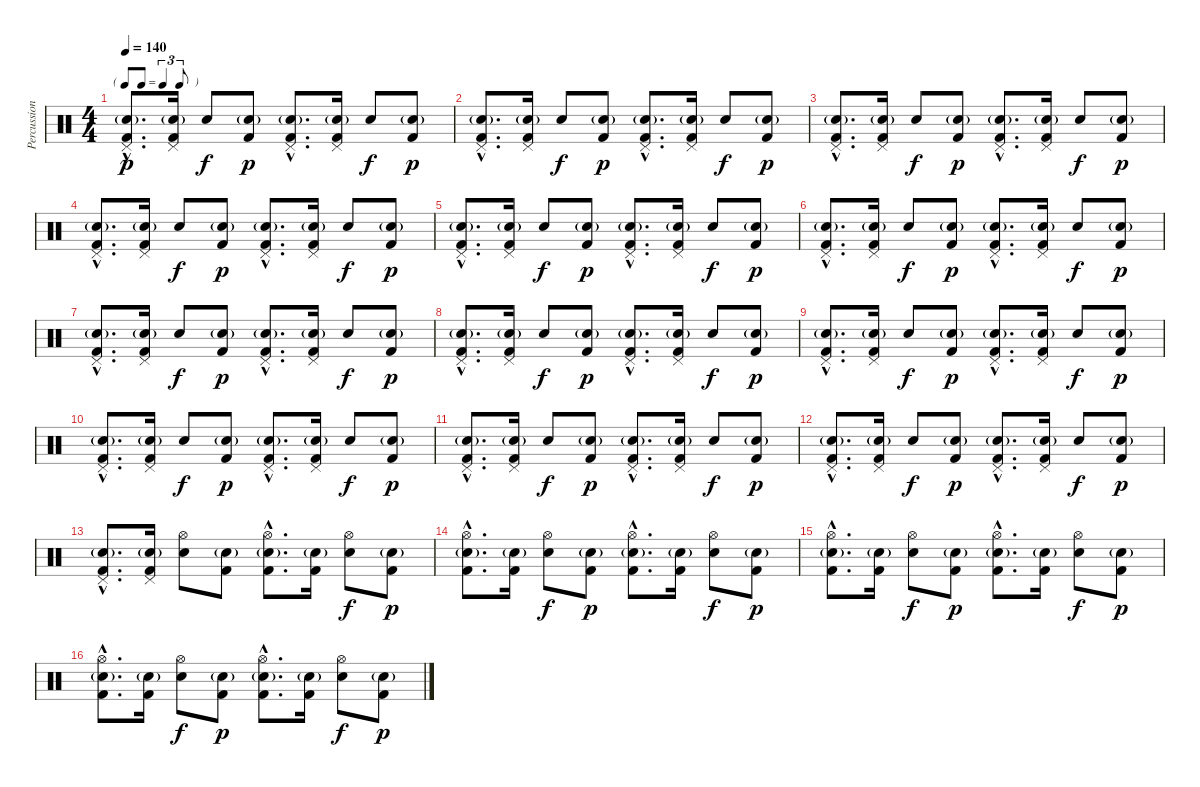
\track ("Percussion" "Percussion") {instrument percussion}
\staff {score}
\articulation defaults
\ts (4 4)
\tf triplet8th
\tempo 140
\clef neutral
\ks c
("Pedal Hi-Hat (hit)"{hac} "Snare (hit) 2"{g hac} "Kick (hit) 2"{hac}).8{d dy p} ("Pedal Hi-Hat (hit)" "Snare (hit) 2"{g} "Kick (hit) 2").16 "Snare (hit) 2".8{dy f} ("Snare (hit) 2"{g} "Kick (hit) 2").8{dy p} ("Pedal Hi-Hat (hit)"{hac} "Snare (hit) 2"{g hac} "Kick (hit) 2"{hac}).8{d} ("Pedal Hi-Hat (hit)" "Snare (hit) 2"{g} "Kick (hit) 2").16 "Snare (hit) 2".8{dy f} ("Snare (hit) 2"{g} "Kick (hit) 2").8{dy p} |
("Pedal Hi-Hat (hit)"{hac} "Snare (hit) 2"{g hac} "Kick (hit) 2"{hac}).8{d} ("Pedal Hi-Hat (hit)" "Snare (hit) 2"{g} "Kick (hit) 2").16 "Snare (hit) 2".8{dy f} ("Snare (hit) 2"{g} "Kick (hit) 2").8{dy p} ("Pedal Hi-Hat (hit)"{hac} "Snare (hit) 2"{g hac} "Kick (hit) 2"{hac}).8{d} ("Pedal Hi-Hat (hit)" "Snare (hit) 2"{g} "Kick (hit) 2").16 "Snare (hit) 2".8{dy f} ("Snare (hit) 2"{g} "Kick (hit) 2").8{dy p} |
("Pedal Hi-Hat (hit)"{hac} "Snare (hit) 2"{g hac} "Kick (hit) 2"{hac}).8{d} ("Pedal Hi-Hat (hit)" "Snare (hit) 2"{g} "Kick (hit) 2").16 "Snare (hit) 2".8{dy f} ("Snare (hit) 2"{g} "Kick (hit) 2").8{dy p} ("Pedal Hi-Hat (hit)"{hac} "Snare (hit) 2"{g hac} "Kick (hit) 2"{hac}).8{d} ("Pedal Hi-Hat (hit)" "Snare (hit) 2"{g} "Kick (hit) 2").16 "Snare (hit) 2".8{dy f} ("Snare (hit) 2"{g} "Kick (hit) 2").8{dy p} |
("Pedal Hi-Hat (hit)"{hac} "Snare (hit) 2"{g hac} "Kick (hit) 2"{hac}).8{d} ("Pedal Hi-Hat (hit)" "Snare (hit) 2"{g} "Kick (hit) 2").16 "Snare (hit) 2".8{dy f} ("Snare (hit) 2"{g} "Kick (hit) 2").8{dy p} ("Pedal Hi-Hat (hit)"{hac} "Snare (hit) 2"{g hac} "Kick (hit) 2"{hac}).8{d} ("Pedal Hi-Hat (hit)" "Snare (hit) 2"{g} "Kick (hit) 2").16 "Snare (hit) 2".8{dy f} ("Snare (hit) 2"{g} "Kick (hit) 2").8{dy p} |
("Pedal Hi-Hat (hit)"{hac} "Snare (hit) 2"{g hac} "Kick (hit) 2"{hac}).8{d} ("Pedal Hi-Hat (hit)" "Snare (hit) 2"{g} "Kick (hit) 2").16 "Snare (hit) 2".8{dy f} ("Snare (hit) 2"{g} "Kick (hit) 2").8{dy p} ("Pedal Hi-Hat (hit)"{hac} "Snare (hit) 2"{g hac} "Kick (hit) 2"{hac}).8{d} ("Pedal Hi-Hat (hit)" "Snare (hit) 2"{g} "Kick (hit) 2").16 "Snare (hit) 2".8{dy f} ("Snare (hit) 2"{g} "Kick (hit) 2").8{dy p} |
("Pedal Hi-Hat (hit)"{hac} "Snare (hit) 2"{g hac} "Kick (hit) 2"{hac}).8{d} ("Pedal Hi-Hat (hit)" "Snare (hit) 2"{g} "Kick (hit) 2").16 "Snare (hit) 2".8{dy f} ("Snare (hit) 2"{g} "Kick (hit) 2").8{dy p} ("Pedal Hi-Hat (hit)"{hac} "Snare (hit) 2"{g hac} "Kick (hit) 2"{hac}).8{d} ("Pedal Hi-Hat (hit)" "Snare (hit) 2"{g} "Kick (hit) 2").16 "Snare (hit) 2".8{dy f} ("Snare (hit) 2"{g} "Kick (hit) 2").8{dy p} |
("Pedal Hi-Hat (hit)"{hac} "Snare (hit) 2"{g hac} "Kick (hit) 2"{hac}).8{d} ("Pedal Hi-Hat (hit)" "Snare (hit) 2"{g} "Kick (hit) 2").16 "Snare (hit) 2".8{dy f} ("Snare (hit) 2"{g} "Kick (hit) 2").8{dy p} ("Pedal Hi-Hat (hit)"{hac} "Snare (hit) 2"{g hac} "Kick (hit) 2"{hac}).8{d} ("Pedal Hi-Hat (hit)" "Snare (hit) 2"{g} "Kick (hit) 2").16 "Snare (hit) 2".8{dy f} ("Snare (hit) 2"{g} "Kick (hit) 2").8{dy p} |
("Pedal Hi-Hat (hit)"{hac} "Snare (hit) 2"{g hac} "Kick (hit) 2"{hac}).8{d} ("Pedal Hi-Hat (hit)" "Snare (hit) 2"{g} "Kick (hit) 2").16 "Snare (hit) 2".8{dy f} ("Snare (hit) 2"{g} "Kick (hit) 2").8{dy p} ("Pedal Hi-Hat (hit)"{hac} "Snare (hit) 2"{g hac} "Kick (hit) 2"{hac}).8{d} ("Pedal Hi-Hat (hit)" "Snare (hit) 2"{g} "Kick (hit) 2").16 "Snare (hit) 2".8{dy f} ("Snare (hit) 2"{g} "Kick (hit) 2").8{dy p} |
("Pedal Hi-Hat (hit)"{hac} "Snare (hit) 2"{g hac} "Kick (hit) 2"{hac}).8{d} ("Pedal Hi-Hat (hit)" "Snare (hit) 2"{g} "Kick (hit) 2").16 "Snare (hit) 2".8{dy f} ("Snare (hit) 2"{g} "Kick (hit) 2").8{dy p} ("Pedal Hi-Hat (hit)"{hac} "Snare (hit) 2"{g hac} "Kick (hit) 2"{hac}).8{d} ("Pedal Hi-Hat (hit)" "Snare (hit) 2"{g} "Kick (hit) 2").16 "Snare (hit) 2".8{dy f} ("Snare (hit) 2"{g} "Kick (hit) 2").8{dy p} |
("Pedal Hi-Hat (hit)"{hac} "Snare (hit) 2"{g hac} "Kick (hit) 2"{hac}).8{d} ("Pedal Hi-Hat (hit)" "Snare (hit) 2"{g} "Kick (hit) 2").16 "Snare (hit) 2".8{dy f} ("Snare (hit) 2"{g} "Kick (hit) 2").8{dy p} ("Pedal Hi-Hat (hit)"{hac} "Snare (hit) 2"{g hac} "Kick (hit) 2"{hac}).8{d} ("Pedal Hi-Hat (hit)" "Snare (hit) 2"{g} "Kick (hit) 2").16 "Snare (hit) 2".8{dy f} ("Snare (hit) 2"{g} "Kick (hit) 2").8{dy p} |
("Pedal Hi-Hat (hit)"{hac} "Snare (hit) 2"{g hac} "Kick (hit) 2"{hac}).8{d} ("Pedal Hi-Hat (hit)" "Snare (hit) 2"{g} "Kick (hit) 2").16 "Snare (hit) 2".8{dy f} ("Snare (hit) 2"{g} "Kick (hit) 2").8{dy p} ("Pedal Hi-Hat (hit)"{hac} "Snare (hit) 2"{g hac} "Kick (hit) 2"{hac}).8{d} ("Pedal Hi-Hat (hit)" "Snare (hit) 2"{g} "Kick (hit) 2").16 "Snare (hit) 2".8{dy f} ("Snare (hit) 2"{g} "Kick (hit) 2").8{dy p} |
("Pedal Hi-Hat (hit)"{hac} "Snare (hit) 2"{g hac} "Kick (hit) 2"{hac}).8{d} ("Pedal Hi-Hat (hit)" "Snare (hit) 2"{g} "Kick (hit) 2").16 "Snare (hit) 2".8{dy f} ("Snare (hit) 2"{g} "Kick (hit) 2").8{dy p} ("Pedal Hi-Hat (hit)"{hac} "Snare (hit) 2"{g hac} "Kick (hit) 2"{hac}).8{d} ("Pedal Hi-Hat (hit)" "Snare (hit) 2"{g} "Kick (hit) 2").16 "Snare (hit) 2".8{dy f} ("Snare (hit) 2"{g} "Kick (hit) 2").8{dy p} |
("Pedal Hi-Hat (hit)"{hac} "Snare (hit) 2"{g hac} "Kick (hit) 2"{hac}).8{d} ("Pedal Hi-Hat (hit)" "Snare (hit) 2"{g} "Kick (hit) 2").16 ("Hi-Hat (open)" "Snare (hit) 2").8 ("Snare (hit) 2"{g} "Kick (hit) 2").8 ("Hi-Hat (open)"{hac} "Snare (hit) 2"{g hac} "Kick (hit) 2"{hac}).8{d} ("Snare (hit) 2"{g} "Kick (hit) 2").16 ("Hi-Hat (open)" "Snare (hit) 2").8{dy f} ("Snare (hit) 2"{g} "Kick (hit) 2").8{dy p} |
("Hi-Hat (open)"{hac} "Snare (hit) 2"{g hac} "Kick (hit) 2"{hac}).8{d} ("Snare (hit) 2"{g} "Kick (hit) 2").16 ("Hi-Hat (open)" "Snare (hit) 2").8{dy f} ("Snare (hit) 2"{g} "Kick (hit) 2").8{dy p} ("Hi-Hat (open)"{hac} "Snare (hit) 2"{g hac} "Kick (hit) 2"{hac}).8{d} ("Snare (hit) 2"{g} "Kick (hit) 2").16 ("Hi-Hat (open)" "Snare (hit) 2").8{dy f} ("Snare (hit) 2"{g} "Kick (hit) 2").8{dy p} |
("Hi-Hat (open)"{hac} "Snare (hit) 2"{g hac} "Kick (hit) 2"{hac}).8{d} ("Snare (hit) 2"{g} "Kick (hit) 2").16 ("Hi-Hat (open)" "Snare (hit) 2").8{dy f} ("Snare (hit) 2"{g} "Kick (hit) 2").8{dy p} ("Hi-Hat (open)"{hac} "Snare (hit) 2"{g hac} "Kick (hit) 2"{hac}).8{d} ("Snare (hit) 2"{g} "Kick (hit) 2").16 ("Hi-Hat (open)" "Snare (hit) 2").8{dy f} ("Snare (hit) 2"{g} "Kick (hit) 2").8{dy p} |
("Hi-Hat (open)"{hac} "Snare (hit) 2"{g hac} "Kick (hit) 2"{hac}).8{d} ("Snare (hit) 2"{g} "Kick (hit) 2").16 ("Hi-Hat (open)" "Snare (hit) 2").8{dy f} ("Snare (hit) 2"{g} "Kick (hit) 2").8{dy p} ("Hi-Hat (open)"{hac} "Snare (hit) 2"{g hac} "Kick (hit) 2"{hac}).8{d} ("Snare (hit) 2"{g} "Kick (hit) 2").16 ("Hi-Hat (open)" "Snare (hit) 2").8{dy f} ("Snare (hit) 2"{g} "Kick (hit) 2").8{dy p}
